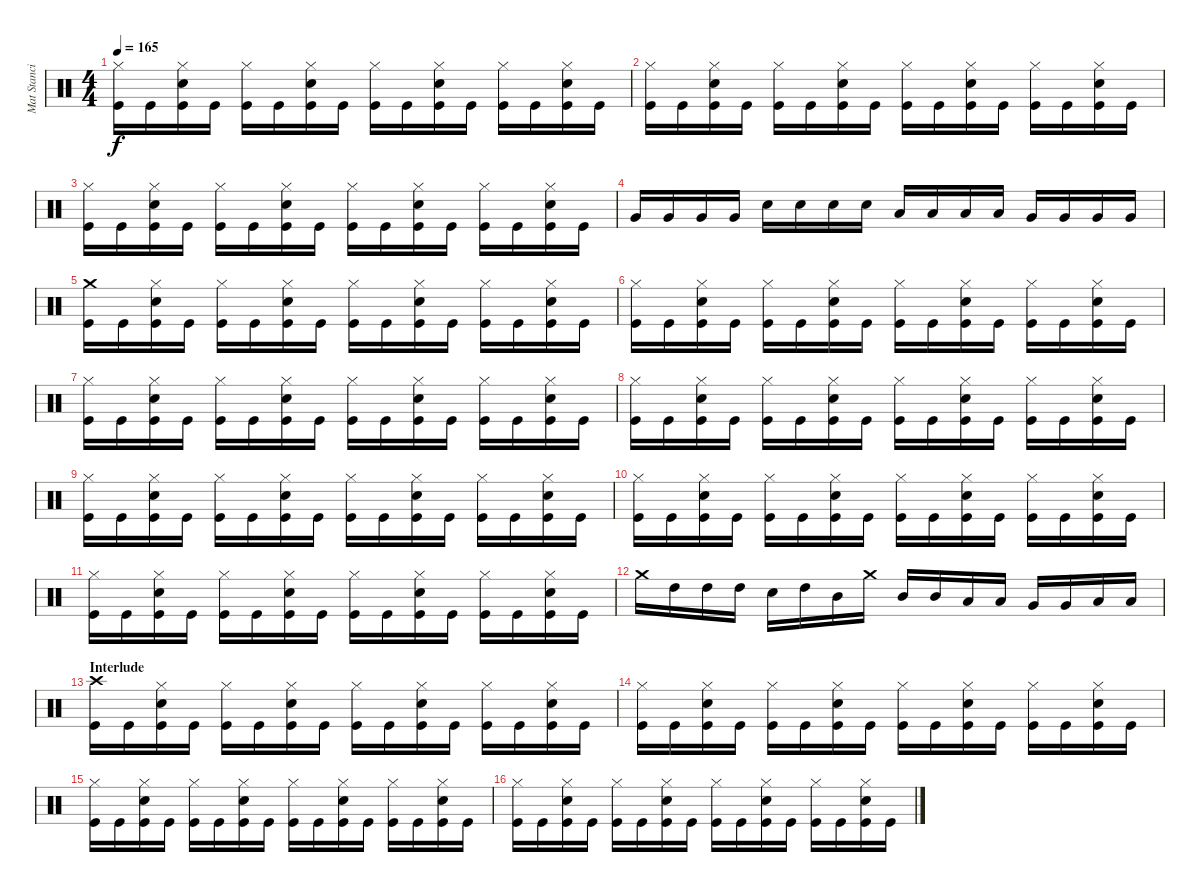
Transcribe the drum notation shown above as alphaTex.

\track ("Mat Stancioiu (Drums)" "Mat Stanci") {instrument percussion}
\staff {score}
\articulation defaults
\ts (4 4)
\tempo 165
\clef neutral
\ks c
("Hi-Hat (closed)" "Kick (hit)").16{dy f} "Kick (hit)".16 ("Hi-Hat (closed)" "Electric Snare (hit)" "Kick (hit)").16 "Kick (hit)".16 ("Hi-Hat (closed)" "Kick (hit)").16 "Kick (hit)".16 ("Hi-Hat (closed)" "Electric Snare (hit)" "Kick (hit)").16 "Kick (hit)".16 ("Hi-Hat (closed)" "Kick (hit)").16 "Kick (hit)".16 ("Hi-Hat (closed)" "Electric Snare (hit)" "Kick (hit)").16 "Kick (hit)".16 ("Hi-Hat (closed)" "Kick (hit)").16 "Kick (hit)".16 ("Hi-Hat (closed)" "Electric Snare (hit)" "Kick (hit)").16 "Kick (hit)".16 |
("Hi-Hat (closed)" "Kick (hit)").16 "Kick (hit)".16 ("Hi-Hat (closed)" "Electric Snare (hit)" "Kick (hit)").16 "Kick (hit)".16 ("Hi-Hat (closed)" "Kick (hit)").16 "Kick (hit)".16 ("Hi-Hat (closed)" "Electric Snare (hit)" "Kick (hit)").16 "Kick (hit)".16 ("Hi-Hat (closed)" "Kick (hit)").16 "Kick (hit)".16 ("Hi-Hat (closed)" "Electric Snare (hit)" "Kick (hit)").16 "Kick (hit)".16 ("Hi-Hat (closed)" "Kick (hit)").16 "Kick (hit)".16 ("Hi-Hat (closed)" "Electric Snare (hit)" "Kick (hit)").16 "Kick (hit)".16 |
("Hi-Hat (closed)" "Kick (hit)").16 "Kick (hit)".16 ("Hi-Hat (closed)" "Electric Snare (hit)" "Kick (hit)").16 "Kick (hit)".16 ("Hi-Hat (closed)" "Kick (hit)").16 "Kick (hit)".16 ("Hi-Hat (closed)" "Electric Snare (hit)" "Kick (hit)").16 "Kick (hit)".16 ("Hi-Hat (closed)" "Kick (hit)").16 "Kick (hit)".16 ("Hi-Hat (closed)" "Electric Snare (hit)" "Kick (hit)").16 "Kick (hit)".16 ("Hi-Hat (closed)" "Kick (hit)").16 "Kick (hit)".16 ("Hi-Hat (closed)" "Electric Snare (hit)" "Kick (hit)").16 "Kick (hit)".16 |
"Very Low Tom (hit)".16 "Very Low Tom (hit)".16 "Very Low Tom (hit)".16 "Very Low Tom (hit)".16 "Electric Snare (hit)".16 "Electric Snare (hit)".16 "Electric Snare (hit)".16 "Electric Snare (hit)".16 "Low Tom (hit)".16 "Low Tom (hit)".16 "Low Tom (hit)".16 "Low Tom (hit)".16 "Very Low Tom (hit)".16 "Very Low Tom (hit)".16 "Very Low Tom (hit)".16 "Very Low Tom (hit)".16 |
("Crash medium (hit)" "Kick (hit)").16 "Kick (hit)".16 ("Hi-Hat (closed)" "Electric Snare (hit)" "Kick (hit)").16 "Kick (hit)".16 ("Hi-Hat (closed)" "Kick (hit)").16 "Kick (hit)".16 ("Hi-Hat (closed)" "Electric Snare (hit)" "Kick (hit)").16 "Kick (hit)".16 ("Hi-Hat (closed)" "Kick (hit)").16 "Kick (hit)".16 ("Hi-Hat (closed)" "Electric Snare (hit)" "Kick (hit)").16 "Kick (hit)".16 ("Hi-Hat (closed)" "Kick (hit)").16 "Kick (hit)".16 ("Hi-Hat (closed)" "Electric Snare (hit)" "Kick (hit)").16 "Kick (hit)".16 |
("Hi-Hat (closed)" "Kick (hit)").16 "Kick (hit)".16 ("Hi-Hat (closed)" "Electric Snare (hit)" "Kick (hit)").16 "Kick (hit)".16 ("Hi-Hat (closed)" "Kick (hit)").16 "Kick (hit)".16 ("Hi-Hat (closed)" "Electric Snare (hit)" "Kick (hit)").16 "Kick (hit)".16 ("Hi-Hat (closed)" "Kick (hit)").16 "Kick (hit)".16 ("Hi-Hat (closed)" "Electric Snare (hit)" "Kick (hit)").16 "Kick (hit)".16 ("Hi-Hat (closed)" "Kick (hit)").16 "Kick (hit)".16 ("Hi-Hat (closed)" "Electric Snare (hit)" "Kick (hit)").16 "Kick (hit)".16 |
("Hi-Hat (closed)" "Kick (hit)").16 "Kick (hit)".16 ("Hi-Hat (closed)" "Electric Snare (hit)" "Kick (hit)").16 "Kick (hit)".16 ("Hi-Hat (closed)" "Kick (hit)").16 "Kick (hit)".16 ("Hi-Hat (closed)" "Electric Snare (hit)" "Kick (hit)").16 "Kick (hit)".16 ("Hi-Hat (closed)" "Kick (hit)").16 "Kick (hit)".16 ("Hi-Hat (closed)" "Electric Snare (hit)" "Kick (hit)").16 "Kick (hit)".16 ("Hi-Hat (closed)" "Kick (hit)").16 "Kick (hit)".16 ("Hi-Hat (closed)" "Electric Snare (hit)" "Kick (hit)").16 "Kick (hit)".16 |
("Hi-Hat (closed)" "Kick (hit)").16 "Kick (hit)".16 ("Hi-Hat (closed)" "Electric Snare (hit)" "Kick (hit)").16 "Kick (hit)".16 ("Hi-Hat (closed)" "Kick (hit)").16 "Kick (hit)".16 ("Hi-Hat (closed)" "Electric Snare (hit)" "Kick (hit)").16 "Kick (hit)".16 ("Hi-Hat (closed)" "Kick (hit)").16 "Kick (hit)".16 ("Hi-Hat (closed)" "Electric Snare (hit)" "Kick (hit)").16 "Kick (hit)".16 ("Hi-Hat (closed)" "Kick (hit)").16 "Kick (hit)".16 ("Hi-Hat (closed)" "Electric Snare (hit)" "Kick (hit)").16 "Kick (hit)".16 |
("Hi-Hat (closed)" "Kick (hit)").16 "Kick (hit)".16 ("Hi-Hat (closed)" "Electric Snare (hit)" "Kick (hit)").16 "Kick (hit)".16 ("Hi-Hat (closed)" "Kick (hit)").16 "Kick (hit)".16 ("Hi-Hat (closed)" "Electric Snare (hit)" "Kick (hit)").16 "Kick (hit)".16 ("Hi-Hat (closed)" "Kick (hit)").16 "Kick (hit)".16 ("Hi-Hat (closed)" "Electric Snare (hit)" "Kick (hit)").16 "Kick (hit)".16 ("Hi-Hat (closed)" "Kick (hit)").16 "Kick (hit)".16 ("Hi-Hat (closed)" "Electric Snare (hit)" "Kick (hit)").16 "Kick (hit)".16 |
("Hi-Hat (closed)" "Kick (hit)").16 "Kick (hit)".16 ("Hi-Hat (closed)" "Electric Snare (hit)" "Kick (hit)").16 "Kick (hit)".16 ("Hi-Hat (closed)" "Kick (hit)").16 "Kick (hit)".16 ("Hi-Hat (closed)" "Electric Snare (hit)" "Kick (hit)").16 "Kick (hit)".16 ("Hi-Hat (closed)" "Kick (hit)").16 "Kick (hit)".16 ("Hi-Hat (closed)" "Electric Snare (hit)" "Kick (hit)").16 "Kick (hit)".16 ("Hi-Hat (closed)" "Kick (hit)").16 "Kick (hit)".16 ("Hi-Hat (closed)" "Electric Snare (hit)" "Kick (hit)").16 "Kick (hit)".16 |
("Hi-Hat (closed)" "Kick (hit)").16 "Kick (hit)".16 ("Hi-Hat (closed)" "Electric Snare (hit)" "Kick (hit)").16 "Kick (hit)".16 ("Hi-Hat (closed)" "Kick (hit)").16 "Kick (hit)".16 ("Hi-Hat (closed)" "Electric Snare (hit)" "Kick (hit)").16 "Kick (hit)".16 ("Hi-Hat (closed)" "Kick (hit)").16 "Kick (hit)".16 ("Hi-Hat (closed)" "Electric Snare (hit)" "Kick (hit)").16 "Kick (hit)".16 ("Hi-Hat (closed)" "Kick (hit)").16 "Kick (hit)".16 ("Hi-Hat (closed)" "Electric Snare (hit)" "Kick (hit)").16 "Kick (hit)".16 |
"Crash medium (hit)".16 "High Tom (hit)".16 "High Tom (hit)".16 "High Tom (hit)".16 "Electric Snare (hit)".16 "High Tom (hit)".16 "Mid Tom (hit)".16 "Crash medium (hit)".16 "Mid Tom (hit)".16 "Mid Tom (hit)".16 "Low Tom (hit)".16 "Low Tom (hit)".16 "Very Low Tom (hit)".16 "Very Low Tom (hit)".16 "Low Floor Tom (hit)".16 "Low Floor Tom (hit)".16 |
\section ("" "Interlude")
("Crash high (hit)" "Kick (hit)").16 "Kick (hit)".16 ("Hi-Hat (closed)" "Electric Snare (hit)" "Kick (hit)").16 "Kick (hit)".16 ("Hi-Hat (closed)" "Kick (hit)").16 "Kick (hit)".16 ("Hi-Hat (closed)" "Electric Snare (hit)" "Kick (hit)").16 "Kick (hit)".16 ("Hi-Hat (closed)" "Kick (hit)").16 "Kick (hit)".16 ("Hi-Hat (closed)" "Electric Snare (hit)" "Kick (hit)").16 "Kick (hit)".16 ("Hi-Hat (closed)" "Kick (hit)").16 "Kick (hit)".16 ("Hi-Hat (closed)" "Electric Snare (hit)" "Kick (hit)").16 "Kick (hit)".16 |
("Hi-Hat (closed)" "Kick (hit)").16 "Kick (hit)".16 ("Hi-Hat (closed)" "Electric Snare (hit)" "Kick (hit)").16 "Kick (hit)".16 ("Hi-Hat (closed)" "Kick (hit)").16 "Kick (hit)".16 ("Hi-Hat (closed)" "Electric Snare (hit)" "Kick (hit)").16 "Kick (hit)".16 ("Hi-Hat (closed)" "Kick (hit)").16 "Kick (hit)".16 ("Hi-Hat (closed)" "Electric Snare (hit)" "Kick (hit)").16 "Kick (hit)".16 ("Hi-Hat (closed)" "Kick (hit)").16 "Kick (hit)".16 ("Hi-Hat (closed)" "Electric Snare (hit)" "Kick (hit)").16 "Kick (hit)".16 |
("Hi-Hat (closed)" "Kick (hit)").16 "Kick (hit)".16 ("Hi-Hat (closed)" "Electric Snare (hit)" "Kick (hit)").16 "Kick (hit)".16 ("Hi-Hat (closed)" "Kick (hit)").16 "Kick (hit)".16 ("Hi-Hat (closed)" "Electric Snare (hit)" "Kick (hit)").16 "Kick (hit)".16 ("Hi-Hat (closed)" "Kick (hit)").16 "Kick (hit)".16 ("Hi-Hat (closed)" "Electric Snare (hit)" "Kick (hit)").16 "Kick (hit)".16 ("Hi-Hat (closed)" "Kick (hit)").16 "Kick (hit)".16 ("Hi-Hat (closed)" "Electric Snare (hit)" "Kick (hit)").16 "Kick (hit)".16 |
("Hi-Hat (closed)" "Kick (hit)").16 "Kick (hit)".16 ("Hi-Hat (closed)" "Electric Snare (hit)" "Kick (hit)").16 "Kick (hit)".16 ("Hi-Hat (closed)" "Kick (hit)").16 "Kick (hit)".16 ("Hi-Hat (closed)" "Electric Snare (hit)" "Kick (hit)").16 "Kick (hit)".16 ("Hi-Hat (closed)" "Kick (hit)").16 "Kick (hit)".16 ("Hi-Hat (closed)" "Electric Snare (hit)" "Kick (hit)").16 "Kick (hit)".16 ("Hi-Hat (closed)" "Kick (hit)").16 "Kick (hit)".16 ("Hi-Hat (closed)" "Electric Snare (hit)" "Kick (hit)").16 "Kick (hit)".16
